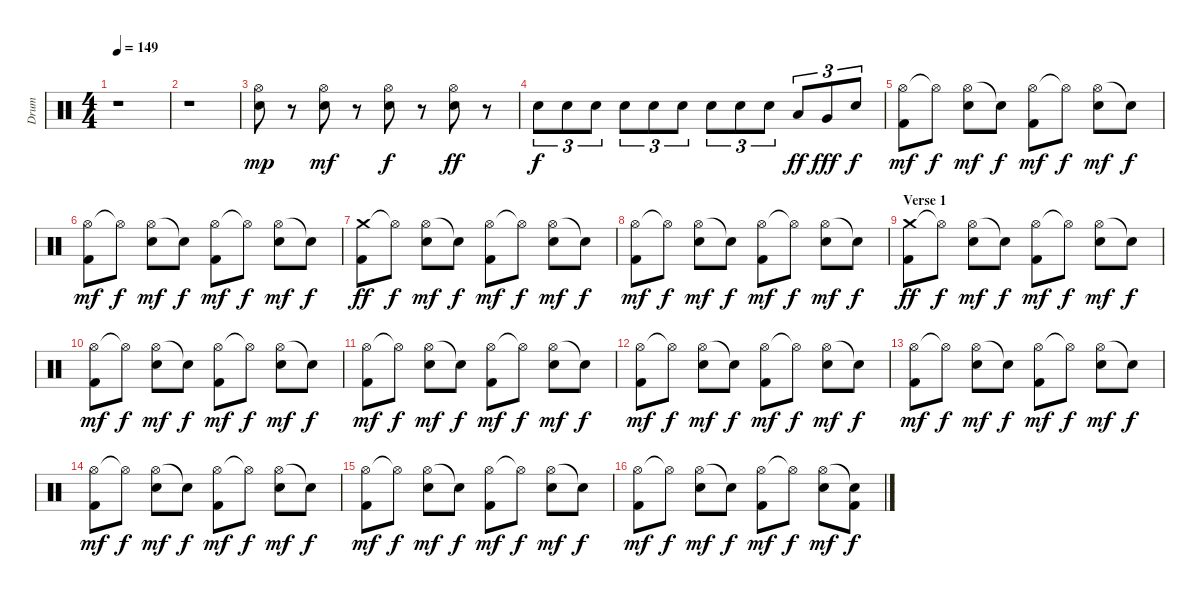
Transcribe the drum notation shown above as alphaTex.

\track ("Drum" "Drum") {instrument percussion}
\staff {score}
\articulation defaults
\ts (4 4)
\tempo 149
\clef neutral
\ks c
r.1{dy mp} |
r.1 |
("Hi-Hat (open)" "Snare (hit) 2").8 r.8 ("Hi-Hat (open)" "Snare (hit) 2").8{dy mf} r.8 ("Hi-Hat (open)" "Snare (hit) 2").8{dy f} r.8 ("Hi-Hat (open)" "Snare (hit) 2").8{dy ff} r.8 |
"Snare (hit) 2".8{tu (3 2) dy f} "Snare (hit) 2".8{tu (3 2)} "Snare (hit) 2".8{tu (3 2)} "Snare (hit) 2".8{tu (3 2)} "Snare (hit) 2".8{tu (3 2)} "Snare (hit) 2".8{tu (3 2)} "Snare (hit) 2".8{tu (3 2)} "Snare (hit) 2".8{tu (3 2)} "Snare (hit) 2".8{tu (3 2)} "Low Tom (hit)".8{tu (3 2) dy ff} "Very Low Tom (hit)".8{tu (3 2) dy fff} "Snare (hit) 2".8{tu (3 2) dy f} |
("Hi-Hat (open)" "Kick (hit) 2").8{dy mf} "Hi-Hat (open)"{t}.8{dy f} ("Hi-Hat (open)" "Snare (hit) 2").8{dy mf} "Snare (hit)"{t}.8{dy f} ("Hi-Hat (open)" "Kick (hit) 2").8{dy mf} "Hi-Hat (open)"{t}.8{dy f} ("Hi-Hat (open)" "Snare (hit) 2").8{dy mf} "Snare (hit)"{t}.8{dy f} |
("Hi-Hat (open)" "Kick (hit) 2").8{dy mf} "Hi-Hat (open)"{t}.8{dy f} ("Hi-Hat (open)" "Snare (hit) 2").8{dy mf} "Snare (hit)"{t}.8{dy f} ("Hi-Hat (open)" "Kick (hit) 2").8{dy mf} "Hi-Hat (open)"{t}.8{dy f} ("Hi-Hat (open)" "Snare (hit) 2").8{dy mf} "Snare (hit)"{t}.8{dy f} |
("Crash medium (hit)" "Kick (hit) 2").8{dy ff} "Hi-Hat (open)"{t}.8{dy f} ("Hi-Hat (open)" "Snare (hit) 2").8{dy mf} "Snare (hit)"{t}.8{dy f} ("Hi-Hat (open)" "Kick (hit) 2").8{dy mf} "Hi-Hat (open)"{t}.8{dy f} ("Hi-Hat (open)" "Snare (hit) 2").8{dy mf} "Snare (hit)"{t}.8{dy f} |
("Hi-Hat (open)" "Kick (hit) 2").8{dy mf} "Hi-Hat (open)"{t}.8{dy f} ("Hi-Hat (open)" "Snare (hit) 2").8{dy mf} "Snare (hit)"{t}.8{dy f} ("Hi-Hat (open)" "Kick (hit) 2").8{dy mf} "Hi-Hat (open)"{t}.8{dy f} ("Hi-Hat (open)" "Snare (hit) 2").8{dy mf} "Snare (hit)"{t}.8{dy f} |
\section ("" "Verse 1")
("Crash medium (hit)" "Kick (hit) 2").8{dy ff} "Hi-Hat (open)"{t}.8{dy f} ("Hi-Hat (open)" "Snare (hit) 2").8{dy mf} "Snare (hit)"{t}.8{dy f} ("Hi-Hat (open)" "Kick (hit) 2").8{dy mf} "Hi-Hat (open)"{t}.8{dy f} ("Hi-Hat (open)" "Snare (hit) 2").8{dy mf} "Snare (hit)"{t}.8{dy f} |
("Hi-Hat (open)" "Kick (hit) 2").8{dy mf} "Hi-Hat (open)"{t}.8{dy f} ("Hi-Hat (open)" "Snare (hit) 2").8{dy mf} "Snare (hit)"{t}.8{dy f} ("Hi-Hat (open)" "Kick (hit) 2").8{dy mf} "Hi-Hat (open)"{t}.8{dy f} ("Hi-Hat (open)" "Snare (hit) 2").8{dy mf} "Snare (hit)"{t}.8{dy f} |
("Hi-Hat (open)" "Kick (hit) 2").8{dy mf} "Hi-Hat (open)"{t}.8{dy f} ("Hi-Hat (open)" "Snare (hit) 2").8{dy mf} "Snare (hit)"{t}.8{dy f} ("Hi-Hat (open)" "Kick (hit) 2").8{dy mf} "Hi-Hat (open)"{t}.8{dy f} ("Hi-Hat (open)" "Snare (hit) 2").8{dy mf} "Snare (hit)"{t}.8{dy f} |
("Hi-Hat (open)" "Kick (hit) 2").8{dy mf} "Hi-Hat (open)"{t}.8{dy f} ("Hi-Hat (open)" "Snare (hit) 2").8{dy mf} "Snare (hit)"{t}.8{dy f} ("Hi-Hat (open)" "Kick (hit) 2").8{dy mf} "Hi-Hat (open)"{t}.8{dy f} ("Hi-Hat (open)" "Snare (hit) 2").8{dy mf} "Snare (hit)"{t}.8{dy f} |
("Hi-Hat (open)" "Kick (hit) 2").8{dy mf} "Hi-Hat (open)"{t}.8{dy f} ("Hi-Hat (open)" "Snare (hit) 2").8{dy mf} "Snare (hit)"{t}.8{dy f} ("Hi-Hat (open)" "Kick (hit) 2").8{dy mf} "Hi-Hat (open)"{t}.8{dy f} ("Hi-Hat (open)" "Snare (hit) 2").8{dy mf} "Snare (hit)"{t}.8{dy f} |
("Hi-Hat (open)" "Kick (hit) 2").8{dy mf} "Hi-Hat (open)"{t}.8{dy f} ("Hi-Hat (open)" "Snare (hit) 2").8{dy mf} "Snare (hit)"{t}.8{dy f} ("Hi-Hat (open)" "Kick (hit) 2").8{dy mf} "Hi-Hat (open)"{t}.8{dy f} ("Hi-Hat (open)" "Snare (hit) 2").8{dy mf} "Snare (hit)"{t}.8{dy f} |
("Hi-Hat (open)" "Kick (hit) 2").8{dy mf} "Hi-Hat (open)"{t}.8{dy f} ("Hi-Hat (open)" "Snare (hit) 2").8{dy mf} "Snare (hit)"{t}.8{dy f} ("Hi-Hat (open)" "Kick (hit) 2").8{dy mf} "Hi-Hat (open)"{t}.8{dy f} ("Hi-Hat (open)" "Snare (hit) 2").8{dy mf} "Snare (hit)"{t}.8{dy f} |
("Hi-Hat (open)" "Kick (hit) 2").8{dy mf} "Hi-Hat (open)"{t}.8{dy f} ("Hi-Hat (open)" "Snare (hit) 2").8{dy mf} "Snare (hit)"{t}.8{dy f} ("Hi-Hat (open)" "Kick (hit) 2").8{dy mf} "Hi-Hat (open)"{t}.8{dy f} ("Hi-Hat (open)" "Snare (hit) 2").8{dy mf} ("Snare (hit)"{t} "Kick (hit) 2").8{dy f}
